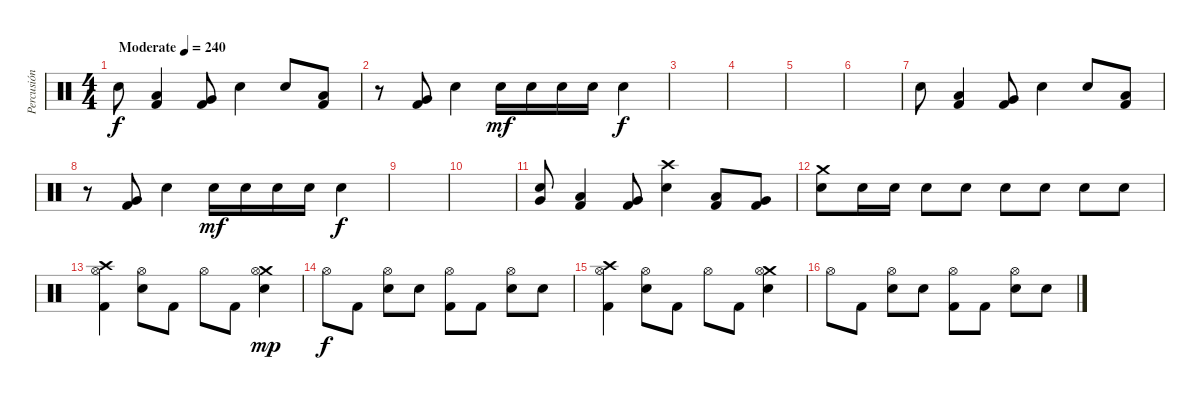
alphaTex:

\track ("Percusión" "Percusión") {instrument percussion}
\staff {score}
\articulation defaults
\ts (4 4)
\tempo (240 "Moderate")
\clef neutral
\ks c "Snare (hit) 2".8{dy f}
("Low Tom (hit)" "Kick (hit) 2").4 ("Very Low Tom (hit)" "Kick (hit) 2").8 "Snare (hit) 2".4 "Snare (hit) 2".8 ("Low Tom (hit)" "Kick (hit) 2").8 |
r.8 ("Very Low Tom (hit)" "Kick (hit) 2").8 "Snare (hit) 2".4 "Snare (hit) 2".16{dy mf} "Snare (hit) 2".16 "Snare (hit) 2".16 "Snare (hit) 2".16 "Snare (hit) 2".4{dy f} |
|
|
|
|
"Snare (hit) 2".8 ("Low Tom (hit)" "Kick (hit) 2").4 ("Very Low Tom (hit)" "Kick (hit) 2").8 "Snare (hit) 2".4 "Snare (hit) 2".8 ("Low Tom (hit)" "Kick (hit) 2").8 |
r.8 ("Very Low Tom (hit)" "Kick (hit) 2").8 "Snare (hit) 2".4 "Snare (hit) 2".16{dy mf} "Snare (hit) 2".16 "Snare (hit) 2".16 "Snare (hit) 2".16 "Snare (hit) 2".4{dy f} |
|
|
("Very Low Tom (hit)" "Snare (hit) 2").8 ("Low Tom (hit)" "Kick (hit) 2").4 ("Very Low Tom (hit)" "Kick (hit) 2").8 ("Crash high (hit)" "Snare (hit) 2").4 ("Low Tom (hit)" "Kick (hit) 2").8 ("Very Low Tom (hit)" "Kick (hit) 2").8 |
("Crash medium (hit)" "Snare (hit) 2").8 "Snare (hit) 2".16 "Snare (hit) 2".16 "Snare (hit) 2".8 "Snare (hit) 2".8 "Snare (hit) 2".8 "Snare (hit) 2".8 "Snare (hit) 2".8 "Snare (hit) 2".8 |
("Crash high (hit)" "Hi-Hat (open)" "Kick (hit) 2").4 ("Hi-Hat (open)" "Snare (hit) 2").8 "Kick (hit) 2".8 "Hi-Hat (open)".8 "Kick (hit) 2".8 ("Crash medium (hit)" "Hi-Hat (open)" "Snare (hit) 2").4{dy mp} |
"Hi-Hat (open)".8{dy f} "Kick (hit) 2".8 ("Hi-Hat (open)" "Snare (hit) 2").8 "Snare (hit) 2".8 ("Hi-Hat (open)" "Kick (hit) 2").8 "Kick (hit) 2".8 ("Hi-Hat (open)" "Snare (hit) 2").8 "Snare (hit) 2".8 |
("Crash high (hit)" "Hi-Hat (open)" "Kick (hit) 2").4 ("Hi-Hat (open)" "Snare (hit) 2").8 "Kick (hit) 2".8 "Hi-Hat (open)".8 "Kick (hit) 2".8 ("Crash medium (hit)" "Hi-Hat (open)" "Snare (hit) 2").4 |
"Hi-Hat (open)".8 "Kick (hit) 2".8 ("Hi-Hat (open)" "Snare (hit) 2").8 "Snare (hit) 2".8 ("Hi-Hat (open)" "Kick (hit) 2").8 "Kick (hit) 2".8 ("Hi-Hat (open)" "Snare (hit) 2").8 "Snare (hit) 2".8
